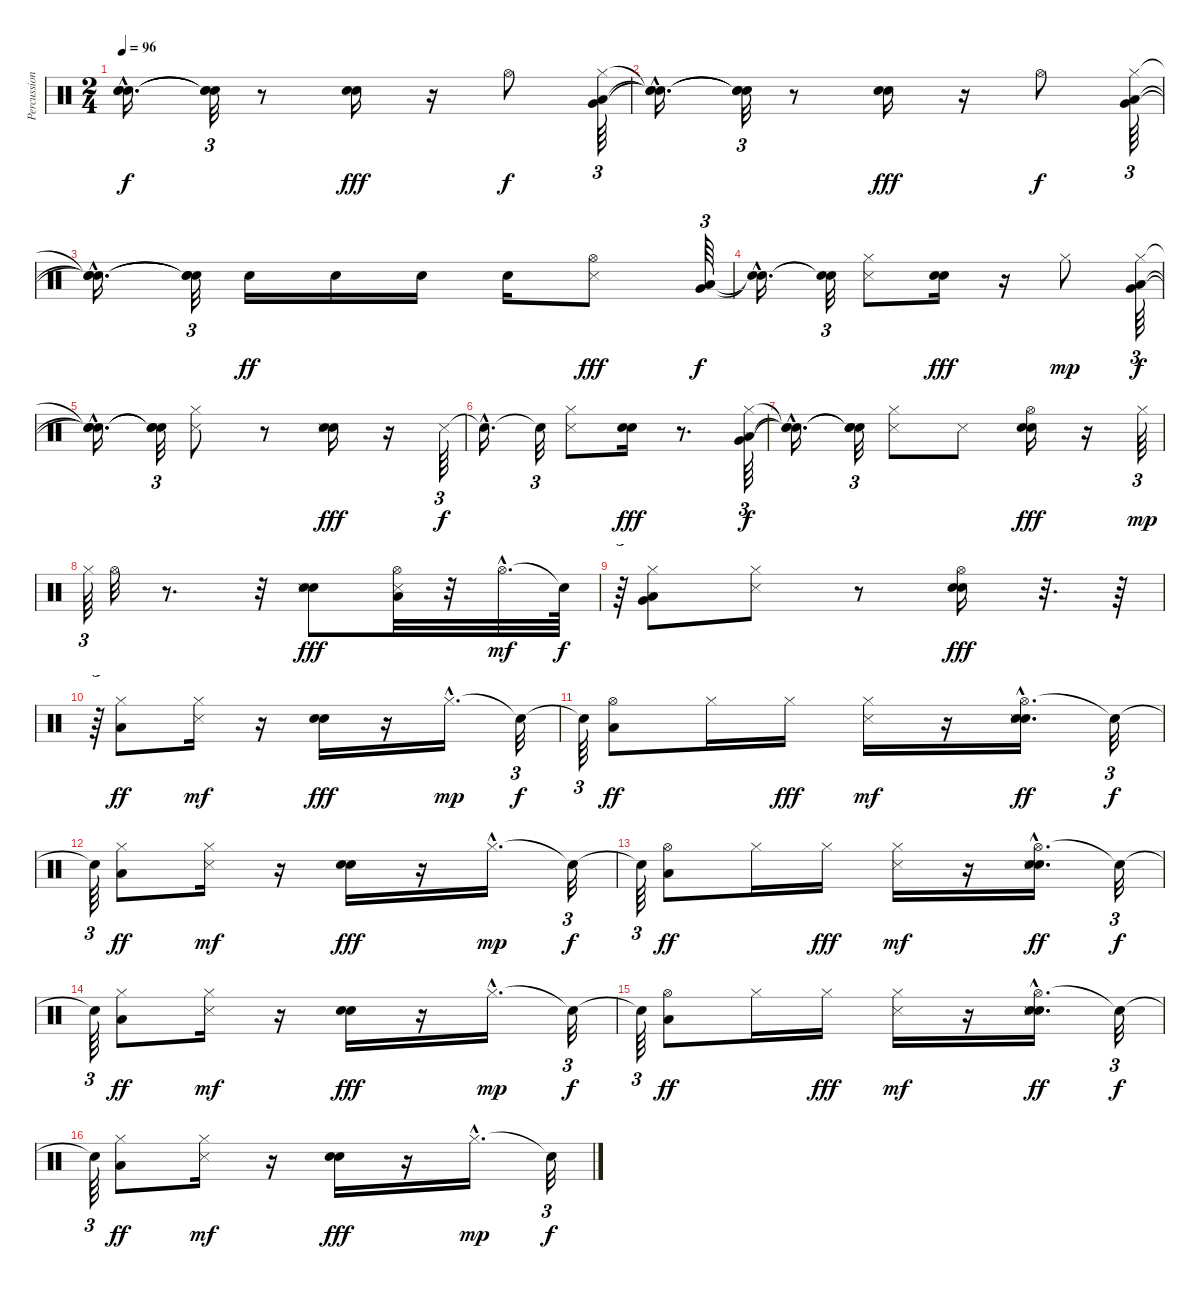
\track ("Percussion" "Percussion") {instrument percussion}
\staff {score}
\articulation defaults
\ts (2 4)
\tempo 96
\clef neutral
\ks c
("Snare (hit)"{hac t} "Snare (hit)"{hac t} "Snare (hit)"{hac t}).16{d dy f} ("Snare (hit)"{t} "Snare (hit)"{t} "Snare (hit)"{t}).32{tu (3 2)} r.8 ("Electric Snare (hit)" "Snare (hit) 2").16{dy fff} r.16 "Hi-Hat (open)".8{dy f} ("Hi-Hat (closed)" "Very Low Tom (hit)" "Low Floor Tom (hit)").64{tu (3 2)} |
("Snare (hit)"{hac t} "Snare (hit)"{hac t} "Snare (hit)"{hac t}).16{d} ("Snare (hit)"{t} "Snare (hit)"{t} "Snare (hit)"{t}).32{tu (3 2)} r.8 ("Electric Snare (hit)" "Snare (hit) 2").16{dy fff} r.16 "Hi-Hat (open)".8{dy f} ("Hi-Hat (closed)" "Very Low Tom (hit)" "Low Floor Tom (hit)").64{tu (3 2)} |
("Snare (hit)"{hac t} "Snare (hit)"{hac t} "Snare (hit)"{hac t}).16{d} ("Snare (hit)"{t} "Snare (hit)"{t} "Snare (hit)"{t}).32{tu (3 2)} "Snare (hit) 2".16{dy ff} "Snare (hit) 2".16 "Snare (hit) 2".16 "Snare (hit) 2".16 ("Hi-Hat (open)" "Snare (side stick) 3").8{dy fff} ("Very Low Tom (hit)" "Low Floor Tom (hit)").64{tu (3 2) dy f} |
("Snare (hit)"{hac t} "Snare (hit)"{hac t}).16{d} ("Snare (hit)"{t} "Snare (hit)"{t}).32{tu (3 2)} ("Hi-Hat (closed)" "Snare (side stick) 3").8 ("Electric Snare (hit)" "Snare (hit) 2").16{dy fff} r.16 "Hi-Hat (closed)".8{dy mp} ("Hi-Hat (closed)" "Very Low Tom (hit)" "Low Floor Tom (hit)").64{tu (3 2) dy f} |
("Snare (hit)"{hac t} "Snare (hit)"{hac t} "Snare (hit)"{hac t}).16{d} ("Snare (hit)"{t} "Snare (hit)"{t} "Snare (hit)"{t}).32{tu (3 2)} ("Hi-Hat (closed)" "Snare (side stick) 3").8 r.8 ("Electric Snare (hit)" "Snare (hit) 2" "Snare (side stick) 3").16{dy fff} r.16 "Snare (side stick) 3".64{tu (3 2) dy f} |
"Snare (hit)"{hac t}.16{d} "Snare (hit)"{t}.32{tu (3 2)} ("Hi-Hat (closed)" "Snare (side stick) 3").8 ("Electric Snare (hit)" "Snare (hit) 2").16{dy fff} r.8{d} ("Hi-Hat (closed)" "Very Low Tom (hit)" "Low Floor Tom (hit)").64{tu (3 2) dy f} |
("Snare (hit)"{hac t} "Snare (hit)"{hac t} "Snare (hit)"{hac t}).16{d} ("Snare (hit)"{t} "Snare (hit)"{t} "Snare (hit)"{t}).32{tu (3 2)} ("Hi-Hat (closed)" "Snare (side stick) 3").8 "Snare (side stick) 3".8 ("Hi-Hat (open)" "Electric Snare (hit)" "Snare (hit) 2").16{dy fff} r.16 "Hi-Hat (closed)".64{tu (3 2) dy mp} |
"Hi-Hat (closed)".64{tu (3 2)} "Hi-Hat (open)".32 r.8{d} r.32 ("Electric Snare (hit)" "Snare (side stick) 3" "Snare (hit) 2").8{dy fff} ("Hi-Hat (open)" "Low Floor Tom (hit)" "Snare (side stick) 3").32 r.32 "Hi-Hat (open)"{hac}.32{d dy mf} "Snare (hit)"{t}.64{dy f} |
r.64{tu (3 2)} ("Hi-Hat (closed)" "Very Low Tom (hit)" "Low Floor Tom (hit)").8 ("Hi-Hat (closed)" "Snare (side stick) 3").8 r.8 ("Hi-Hat (open)" "Electric Snare (hit)" "Snare (hit) 2").16{dy fff} r.32{d} r.64 |
r.64{tu (3 2)} ("Hi-Hat (closed)" "Low Floor Tom (hit)").8{dy ff} ("Hi-Hat (closed)" "Snare (side stick) 3").16{dy mf} r.16 ("Electric Snare (hit)" "Snare (hit) 2").16{dy fff} r.16 "Hi-Hat (closed)"{hac}.16{d dy mp} "Snare (hit)"{t}.32{tu (3 2) dy f} |
"Snare (hit)"{t}.64{tu (3 2)} ("Hi-Hat (open)" "Low Floor Tom (hit)").8{dy ff} "Hi-Hat (closed)".16 "Hi-Hat (closed)".16{dy fff} ("Hi-Hat (closed)" "Snare (side stick) 3").16{dy mf} r.16 ("Hi-Hat (open)"{hac} "Snare (hit) 2"{hac} "Electric Snare (hit)"{hac} "Snare (side stick) 3"{hac}).16{d dy ff} "Snare (hit)"{t}.32{tu (3 2) dy f} |
"Snare (hit)"{t}.64{tu (3 2)} ("Hi-Hat (closed)" "Low Floor Tom (hit)").8{dy ff} ("Hi-Hat (closed)" "Snare (side stick) 3").16{dy mf} r.16 ("Electric Snare (hit)" "Snare (hit) 2").16{dy fff} r.16 "Hi-Hat (closed)"{hac}.16{d dy mp} "Snare (hit)"{t}.32{tu (3 2) dy f} |
"Snare (hit)"{t}.64{tu (3 2)} ("Hi-Hat (open)" "Low Floor Tom (hit)").8{dy ff} "Hi-Hat (closed)".16 "Hi-Hat (closed)".16{dy fff} ("Hi-Hat (closed)" "Snare (side stick) 3").16{dy mf} r.16 ("Hi-Hat (open)"{hac} "Snare (hit) 2"{hac} "Electric Snare (hit)"{hac} "Snare (side stick) 3"{hac}).16{d dy ff} "Snare (hit)"{t}.32{tu (3 2) dy f} |
"Snare (hit)"{t}.64{tu (3 2)} ("Hi-Hat (closed)" "Low Floor Tom (hit)").8{dy ff} ("Hi-Hat (closed)" "Snare (side stick) 3").16{dy mf} r.16 ("Electric Snare (hit)" "Snare (hit) 2").16{dy fff} r.16 "Hi-Hat (closed)"{hac}.16{d dy mp} "Snare (hit)"{t}.32{tu (3 2) dy f} |
"Snare (hit)"{t}.64{tu (3 2)} ("Hi-Hat (open)" "Low Floor Tom (hit)").8{dy ff} "Hi-Hat (closed)".16 "Hi-Hat (closed)".16{dy fff} ("Hi-Hat (closed)" "Snare (side stick) 3").16{dy mf} r.16 ("Hi-Hat (open)"{hac} "Snare (hit) 2"{hac} "Electric Snare (hit)"{hac} "Snare (side stick) 3"{hac}).16{d dy ff} "Snare (hit)"{t}.32{tu (3 2) dy f} |
"Snare (hit)"{t}.64{tu (3 2)} ("Hi-Hat (closed)" "Low Floor Tom (hit)").8{dy ff} ("Hi-Hat (closed)" "Snare (side stick) 3").16{dy mf} r.16 ("Electric Snare (hit)" "Snare (hit) 2").16{dy fff} r.16 "Hi-Hat (closed)"{hac}.16{d dy mp} "Snare (hit)"{t}.32{tu (3 2) dy f}
